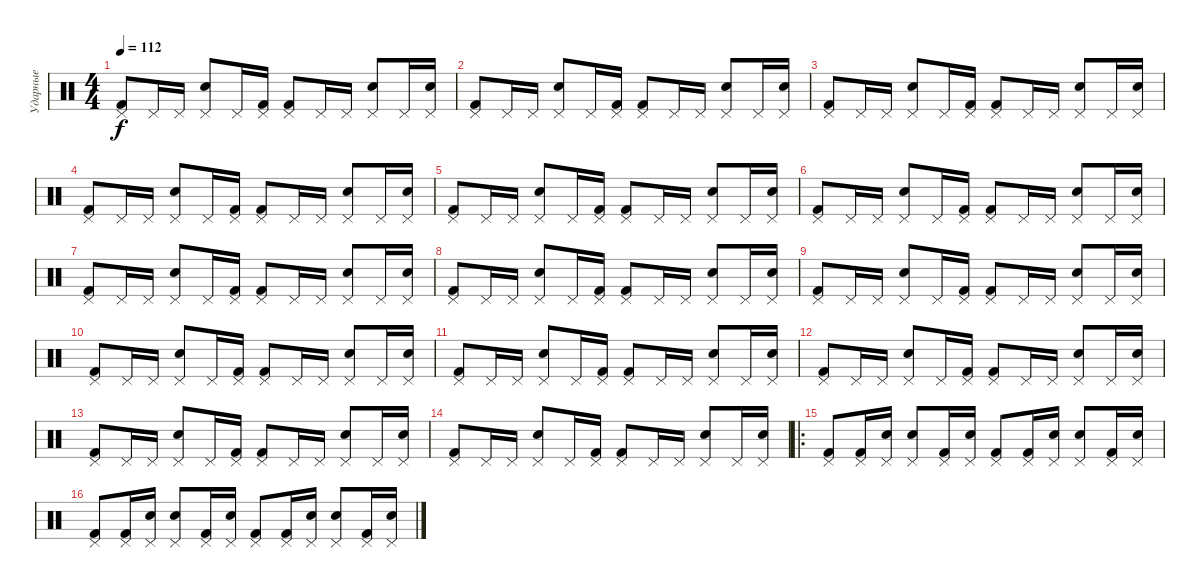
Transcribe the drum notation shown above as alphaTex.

\track ("Ударные" "Ударные") {instrument percussion}
\staff {score}
\articulation defaults
\ts (4 4)
\tempo 112
\clef neutral
\ks c
("Kick (hit) 2" "Pedal Hi-Hat (hit)").8{dy f} "Pedal Hi-Hat (hit)".16 "Pedal Hi-Hat (hit)".16 ("Pedal Hi-Hat (hit)" "Snare (hit) 2").8 "Pedal Hi-Hat (hit)".16 ("Pedal Hi-Hat (hit)" "Kick (hit) 2").16 ("Kick (hit) 2" "Pedal Hi-Hat (hit)").8 "Pedal Hi-Hat (hit)".16 "Pedal Hi-Hat (hit)".16 ("Snare (hit) 2" "Pedal Hi-Hat (hit)").8 "Pedal Hi-Hat (hit)".16 ("Pedal Hi-Hat (hit)" "Snare (hit) 2").16 |
("Kick (hit) 2" "Pedal Hi-Hat (hit)").8 "Pedal Hi-Hat (hit)".16 "Pedal Hi-Hat (hit)".16 ("Pedal Hi-Hat (hit)" "Snare (hit) 2").8 "Pedal Hi-Hat (hit)".16 ("Pedal Hi-Hat (hit)" "Kick (hit) 2").16 ("Kick (hit) 2" "Pedal Hi-Hat (hit)").8 "Pedal Hi-Hat (hit)".16 "Pedal Hi-Hat (hit)".16 ("Snare (hit) 2" "Pedal Hi-Hat (hit)").8 "Pedal Hi-Hat (hit)".16 ("Pedal Hi-Hat (hit)" "Snare (hit) 2").16 |
("Kick (hit) 2" "Pedal Hi-Hat (hit)").8 "Pedal Hi-Hat (hit)".16 "Pedal Hi-Hat (hit)".16 ("Pedal Hi-Hat (hit)" "Snare (hit) 2").8 "Pedal Hi-Hat (hit)".16 ("Pedal Hi-Hat (hit)" "Kick (hit) 2").16 ("Kick (hit) 2" "Pedal Hi-Hat (hit)").8 "Pedal Hi-Hat (hit)".16 "Pedal Hi-Hat (hit)".16 ("Snare (hit) 2" "Pedal Hi-Hat (hit)").8 "Pedal Hi-Hat (hit)".16 ("Pedal Hi-Hat (hit)" "Snare (hit) 2").16 |
("Kick (hit) 2" "Pedal Hi-Hat (hit)").8 "Pedal Hi-Hat (hit)".16 "Pedal Hi-Hat (hit)".16 ("Pedal Hi-Hat (hit)" "Snare (hit) 2").8 "Pedal Hi-Hat (hit)".16 ("Pedal Hi-Hat (hit)" "Kick (hit) 2").16 ("Kick (hit) 2" "Pedal Hi-Hat (hit)").8 "Pedal Hi-Hat (hit)".16 "Pedal Hi-Hat (hit)".16 ("Snare (hit) 2" "Pedal Hi-Hat (hit)").8 "Pedal Hi-Hat (hit)".16 ("Pedal Hi-Hat (hit)" "Snare (hit) 2").16 |
("Kick (hit) 2" "Pedal Hi-Hat (hit)").8 "Pedal Hi-Hat (hit)".16 "Pedal Hi-Hat (hit)".16 ("Pedal Hi-Hat (hit)" "Snare (hit) 2").8 "Pedal Hi-Hat (hit)".16 ("Pedal Hi-Hat (hit)" "Kick (hit) 2").16 ("Kick (hit) 2" "Pedal Hi-Hat (hit)").8 "Pedal Hi-Hat (hit)".16 "Pedal Hi-Hat (hit)".16 ("Snare (hit) 2" "Pedal Hi-Hat (hit)").8 "Pedal Hi-Hat (hit)".16 ("Pedal Hi-Hat (hit)" "Snare (hit) 2").16 |
("Kick (hit) 2" "Pedal Hi-Hat (hit)").8 "Pedal Hi-Hat (hit)".16 "Pedal Hi-Hat (hit)".16 ("Pedal Hi-Hat (hit)" "Snare (hit) 2").8 "Pedal Hi-Hat (hit)".16 ("Pedal Hi-Hat (hit)" "Kick (hit) 2").16 ("Kick (hit) 2" "Pedal Hi-Hat (hit)").8 "Pedal Hi-Hat (hit)".16 "Pedal Hi-Hat (hit)".16 ("Snare (hit) 2" "Pedal Hi-Hat (hit)").8 "Pedal Hi-Hat (hit)".16 ("Pedal Hi-Hat (hit)" "Snare (hit) 2").16 |
("Kick (hit) 2" "Pedal Hi-Hat (hit)").8 "Pedal Hi-Hat (hit)".16 "Pedal Hi-Hat (hit)".16 ("Pedal Hi-Hat (hit)" "Snare (hit) 2").8 "Pedal Hi-Hat (hit)".16 ("Pedal Hi-Hat (hit)" "Kick (hit) 2").16 ("Kick (hit) 2" "Pedal Hi-Hat (hit)").8 "Pedal Hi-Hat (hit)".16 "Pedal Hi-Hat (hit)".16 ("Snare (hit) 2" "Pedal Hi-Hat (hit)").8 "Pedal Hi-Hat (hit)".16 ("Pedal Hi-Hat (hit)" "Snare (hit) 2").16 |
("Kick (hit) 2" "Pedal Hi-Hat (hit)").8 "Pedal Hi-Hat (hit)".16 "Pedal Hi-Hat (hit)".16 ("Pedal Hi-Hat (hit)" "Snare (hit) 2").8 "Pedal Hi-Hat (hit)".16 ("Pedal Hi-Hat (hit)" "Kick (hit) 2").16 ("Kick (hit) 2" "Pedal Hi-Hat (hit)").8 "Pedal Hi-Hat (hit)".16 "Pedal Hi-Hat (hit)".16 ("Snare (hit) 2" "Pedal Hi-Hat (hit)").8 "Pedal Hi-Hat (hit)".16 ("Pedal Hi-Hat (hit)" "Snare (hit) 2").16 |
("Kick (hit) 2" "Pedal Hi-Hat (hit)").8 "Pedal Hi-Hat (hit)".16 "Pedal Hi-Hat (hit)".16 ("Pedal Hi-Hat (hit)" "Snare (hit) 2").8 "Pedal Hi-Hat (hit)".16 ("Pedal Hi-Hat (hit)" "Kick (hit) 2").16 ("Kick (hit) 2" "Pedal Hi-Hat (hit)").8 "Pedal Hi-Hat (hit)".16 "Pedal Hi-Hat (hit)".16 ("Snare (hit) 2" "Pedal Hi-Hat (hit)").8 "Pedal Hi-Hat (hit)".16 ("Pedal Hi-Hat (hit)" "Snare (hit) 2").16 |
("Kick (hit) 2" "Pedal Hi-Hat (hit)").8 "Pedal Hi-Hat (hit)".16 "Pedal Hi-Hat (hit)".16 ("Pedal Hi-Hat (hit)" "Snare (hit) 2").8 "Pedal Hi-Hat (hit)".16 ("Pedal Hi-Hat (hit)" "Kick (hit) 2").16 ("Kick (hit) 2" "Pedal Hi-Hat (hit)").8 "Pedal Hi-Hat (hit)".16 "Pedal Hi-Hat (hit)".16 ("Snare (hit) 2" "Pedal Hi-Hat (hit)").8 "Pedal Hi-Hat (hit)".16 ("Pedal Hi-Hat (hit)" "Snare (hit) 2").16 |
("Kick (hit) 2" "Pedal Hi-Hat (hit)").8 "Pedal Hi-Hat (hit)".16 "Pedal Hi-Hat (hit)".16 ("Pedal Hi-Hat (hit)" "Snare (hit) 2").8 "Pedal Hi-Hat (hit)".16 ("Pedal Hi-Hat (hit)" "Kick (hit) 2").16 ("Kick (hit) 2" "Pedal Hi-Hat (hit)").8 "Pedal Hi-Hat (hit)".16 "Pedal Hi-Hat (hit)".16 ("Snare (hit) 2" "Pedal Hi-Hat (hit)").8 "Pedal Hi-Hat (hit)".16 ("Pedal Hi-Hat (hit)" "Snare (hit) 2").16 |
("Kick (hit) 2" "Pedal Hi-Hat (hit)").8 "Pedal Hi-Hat (hit)".16 "Pedal Hi-Hat (hit)".16 ("Pedal Hi-Hat (hit)" "Snare (hit) 2").8 "Pedal Hi-Hat (hit)".16 ("Pedal Hi-Hat (hit)" "Kick (hit) 2").16 ("Kick (hit) 2" "Pedal Hi-Hat (hit)").8 "Pedal Hi-Hat (hit)".16 "Pedal Hi-Hat (hit)".16 ("Snare (hit) 2" "Pedal Hi-Hat (hit)").8 "Pedal Hi-Hat (hit)".16 ("Pedal Hi-Hat (hit)" "Snare (hit) 2").16 |
("Kick (hit) 2" "Pedal Hi-Hat (hit)").8 "Pedal Hi-Hat (hit)".16 "Pedal Hi-Hat (hit)".16 ("Pedal Hi-Hat (hit)" "Snare (hit) 2").8 "Pedal Hi-Hat (hit)".16 ("Pedal Hi-Hat (hit)" "Kick (hit) 2").16 ("Kick (hit) 2" "Pedal Hi-Hat (hit)").8 "Pedal Hi-Hat (hit)".16 "Pedal Hi-Hat (hit)".16 ("Snare (hit) 2" "Pedal Hi-Hat (hit)").8 "Pedal Hi-Hat (hit)".16 ("Pedal Hi-Hat (hit)" "Snare (hit) 2").16 |
("Kick (hit) 2" "Pedal Hi-Hat (hit)").8 "Pedal Hi-Hat (hit)".16 "Pedal Hi-Hat (hit)".16 ("Pedal Hi-Hat (hit)" "Snare (hit) 2").8 "Pedal Hi-Hat (hit)".16 ("Pedal Hi-Hat (hit)" "Kick (hit) 2").16 ("Kick (hit) 2" "Pedal Hi-Hat (hit)").8 "Pedal Hi-Hat (hit)".16 "Pedal Hi-Hat (hit)".16 ("Snare (hit) 2" "Pedal Hi-Hat (hit)").8 "Pedal Hi-Hat (hit)".16 ("Pedal Hi-Hat (hit)" "Snare (hit) 2").16 |
\ro
("Kick (hit) 2" "Pedal Hi-Hat (hit)").8 ("Kick (hit) 2" "Pedal Hi-Hat (hit)").16 ("Snare (hit) 2" "Pedal Hi-Hat (hit)").16 ("Snare (hit) 2" "Pedal Hi-Hat (hit)").8 ("Kick (hit) 2" "Pedal Hi-Hat (hit)").16 ("Snare (hit) 2" "Pedal Hi-Hat (hit)").16 ("Kick (hit) 2" "Pedal Hi-Hat (hit)").8 ("Kick (hit) 2" "Pedal Hi-Hat (hit)").16 ("Snare (hit) 2" "Pedal Hi-Hat (hit)").16 ("Snare (hit) 2" "Pedal Hi-Hat (hit)").8 ("Kick (hit) 2" "Pedal Hi-Hat (hit)").16 ("Snare (hit) 2" "Pedal Hi-Hat (hit)").16 |
("Kick (hit) 2" "Pedal Hi-Hat (hit)").8 ("Kick (hit) 2" "Pedal Hi-Hat (hit)").16 ("Snare (hit) 2" "Pedal Hi-Hat (hit)").16 ("Snare (hit) 2" "Pedal Hi-Hat (hit)").8 ("Kick (hit) 2" "Pedal Hi-Hat (hit)").16 ("Snare (hit) 2" "Pedal Hi-Hat (hit)").16 ("Kick (hit) 2" "Pedal Hi-Hat (hit)").8 ("Kick (hit) 2" "Pedal Hi-Hat (hit)").16 ("Snare (hit) 2" "Pedal Hi-Hat (hit)").16 ("Snare (hit) 2" "Pedal Hi-Hat (hit)").8 ("Kick (hit) 2" "Pedal Hi-Hat (hit)").16 ("Snare (hit) 2" "Pedal Hi-Hat (hit)").16
